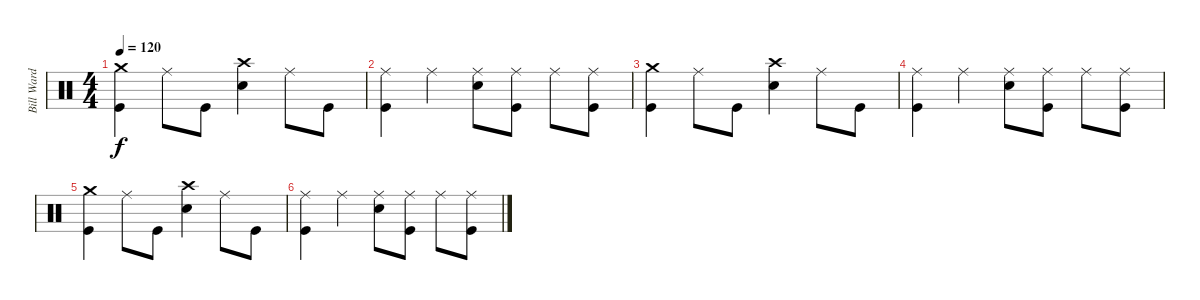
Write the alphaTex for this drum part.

\track ("Bill Ward" "Bill Ward") {instrument percussion}
\staff {score}
\articulation defaults
\ts (4 4)
\tempo 120
\clef neutral
\ks c
("Crash medium (hit)" "Kick (hit)").4{dy f volume 8} "Ride (middle)".8 "Kick (hit)".8 ("Crash high (hit)" "Electric Snare (hit)").4 "Ride (middle)".8 "Kick (hit)".8 |
("Ride (middle)" "Kick (hit)").4{volume 7} "Ride (middle)".4 ("Ride (middle)" "Electric Snare (hit)").8 ("Ride (middle)" "Kick (hit)").8 "Ride (middle)".8 ("Ride (middle)" "Kick (hit)").8 |
("Crash medium (hit)" "Kick (hit)").4{volume 4} "Ride (middle)".8 "Kick (hit)".8 ("Crash high (hit)" "Electric Snare (hit)").4 "Ride (middle)".8 "Kick (hit)".8 |
("Ride (middle)" "Kick (hit)").4{volume 2} "Ride (middle)".4 ("Ride (middle)" "Electric Snare (hit)").8 ("Ride (middle)" "Kick (hit)").8 "Ride (middle)".8 ("Ride (middle)" "Kick (hit)").8 |
("Crash medium (hit)" "Kick (hit)").4{volume 1} "Ride (middle)".8 "Kick (hit)".8 ("Crash high (hit)" "Electric Snare (hit)").4 "Ride (middle)".8 "Kick (hit)".8 |
("Ride (middle)" "Kick (hit)").4{volume 0} "Ride (middle)".4 ("Ride (middle)" "Electric Snare (hit)").8 ("Ride (middle)" "Kick (hit)").8 "Ride (middle)".8 ("Ride (middle)" "Kick (hit)").8
